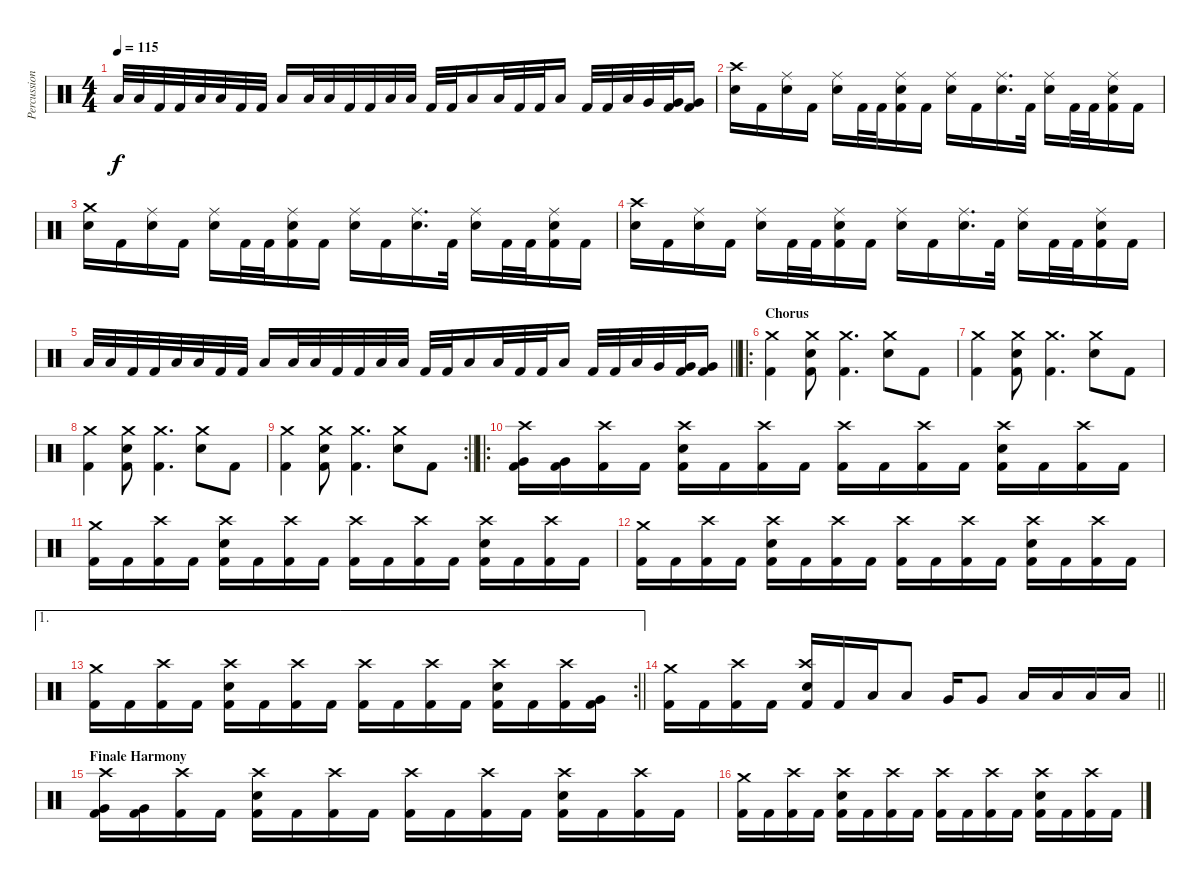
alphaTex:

\track ("Percussion" "Percussion") {instrument percussion}
\staff {score}
\articulation defaults
\ts (4 4)
\tempo 115
\clef neutral
\ks c "Low Tom (hit)".32{dy f} "Low Tom (hit)".32 "Kick (hit) 2".32 "Kick (hit) 2".32 "Low Tom (hit)".32 "Low Tom (hit)".32 "Kick (hit) 2".32 "Kick (hit) 2".32 "Low Tom (hit)".16 "Low Tom (hit)".32 "Low Tom (hit)".32 "Kick (hit) 2".32 "Kick (hit) 2".32 "Low Tom (hit)".32 "Low Tom (hit)".32 "Kick (hit) 2".32 "Kick (hit) 2".32 "Low Tom (hit)".16 "Low Tom (hit)".32 "Kick (hit) 2".32 "Kick (hit) 2".32 "Low Tom (hit)".16 "Kick (hit) 2".32 "Kick (hit) 2".32 "Low Tom (hit)".32 "Very Low Tom (hit)".32
("Very Low Tom (hit)" "Kick (hit) 2").32 ("Very Low Tom (hit)" "Kick (hit) 2").16 |
("Crash high (hit)" "Snare (hit) 2").16 "Kick (hit) 2".16 ("Ride (middle)" "Snare (hit) 2").16 "Kick (hit) 2".16 ("Ride (middle)" "Snare (hit) 2").16 "Kick (hit) 2".32 "Kick (hit) 2".32 ("Ride (middle)" "Snare (hit) 2" "Kick (hit) 2").16 "Kick (hit) 2".16 ("Ride (middle)" "Snare (hit) 2").16 "Kick (hit) 2".16 ("Ride (middle)" "Snare (hit) 2").16{d} "Kick (hit) 2".32 ("Ride (middle)" "Snare (hit) 2").16 "Kick (hit) 2".32 "Kick (hit) 2".32 ("Ride (middle)" "Snare (hit) 2" "Kick (hit) 2").16 "Kick (hit) 2".16 |
("Crash medium (hit)" "Snare (hit) 2").16 "Kick (hit) 2".16 ("Ride (middle)" "Snare (hit) 2").16 "Kick (hit) 2".16 ("Ride (middle)" "Snare (hit) 2").16 "Kick (hit) 2".32 "Kick (hit) 2".32 ("Ride (middle)" "Snare (hit) 2" "Kick (hit) 2").16 "Kick (hit) 2".16 ("Ride (middle)" "Snare (hit) 2").16 "Kick (hit) 2".16 ("Ride (middle)" "Snare (hit) 2").16{d} "Kick (hit) 2".32 ("Ride (middle)" "Snare (hit) 2").16 "Kick (hit) 2".32 "Kick (hit) 2".32 ("Ride (middle)" "Snare (hit) 2" "Kick (hit) 2").16 "Kick (hit) 2".16 |
("Crash high (hit)" "Snare (hit) 2").16 "Kick (hit) 2".16 ("Ride (middle)" "Snare (hit) 2").16 "Kick (hit) 2".16 ("Ride (middle)" "Snare (hit) 2").16 "Kick (hit) 2".32 "Kick (hit) 2".32 ("Ride (middle)" "Snare (hit) 2" "Kick (hit) 2").16 "Kick (hit) 2".16 ("Ride (middle)" "Snare (hit) 2").16 "Kick (hit) 2".16 ("Ride (middle)" "Snare (hit) 2").16{d} "Kick (hit) 2".32 ("Ride (middle)" "Snare (hit) 2").16 "Kick (hit) 2".32 "Kick (hit) 2".32 ("Ride (middle)" "Snare (hit) 2" "Kick (hit) 2").16 "Kick (hit) 2".16 |
\barLineRight lightlight "Low Tom (hit)".32 "Low Tom (hit)".32 "Kick (hit) 2".32 "Kick (hit) 2".32 "Low Tom (hit)".32 "Low Tom (hit)".32 "Kick (hit) 2".32 "Kick (hit) 2".32 "Low Tom (hit)".16 "Low Tom (hit)".32 "Low Tom (hit)".32 "Kick (hit) 2".32 "Kick (hit) 2".32 "Low Tom (hit)".32 "Low Tom (hit)".32 "Kick (hit) 2".32 "Kick (hit) 2".32 "Low Tom (hit)".16 "Low Tom (hit)".32 "Kick (hit) 2".32 "Kick (hit) 2".32 "Low Tom (hit)".16 "Kick (hit) 2".32 "Kick (hit) 2".32 "Low Tom (hit)".32 "Very Low Tom (hit)".32
("Very Low Tom (hit)" "Kick (hit) 2").32 ("Very Low Tom (hit)" "Kick (hit) 2").16 |
\ro
\section ("" "Chorus")
("Crash medium (hit)" "Kick (hit) 2").4 ("Crash medium (hit)" "Snare (hit) 2" "Kick (hit) 2").8 ("Crash medium (hit)" "Kick (hit) 2").4{d} ("Crash medium (hit)" "Snare (hit) 2").8 "Kick (hit) 2".8 |
("Crash medium (hit)" "Kick (hit) 2").4 ("Crash medium (hit)" "Snare (hit) 2" "Kick (hit) 2").8 ("Crash medium (hit)" "Kick (hit) 2").4{d} ("Crash medium (hit)" "Snare (hit) 2").8 "Kick (hit) 2".8 |
("Crash medium (hit)" "Kick (hit) 2").4 ("Crash medium (hit)" "Snare (hit) 2" "Kick (hit) 2").8 ("Crash medium (hit)" "Kick (hit) 2").4{d} ("Crash medium (hit)" "Snare (hit) 2").8 "Kick (hit) 2".8 |
\rc 2
\barLineRight lightlight
("Crash medium (hit)" "Kick (hit) 2").4 ("Crash medium (hit)" "Snare (hit) 2" "Kick (hit) 2").8 ("Crash medium (hit)" "Kick (hit) 2").4{d} ("Crash medium (hit)" "Snare (hit) 2").8 "Kick (hit) 2".8 |
\ro
("Crash high (hit)" "Very Low Tom (hit)" "Kick (hit) 2").16 ("Very Low Tom (hit)" "Kick (hit) 2").16 ("Crash high (hit)" "Kick (hit) 2").16 "Kick (hit) 2".16 ("Crash high (hit)" "Snare (hit) 2" "Kick (hit) 2").16 "Kick (hit) 2".16 ("Crash high (hit)" "Kick (hit) 2").16 "Kick (hit) 2".16 ("Crash high (hit)" "Kick (hit) 2").16 "Kick (hit) 2".16 ("Crash high (hit)" "Kick (hit) 2").16 "Kick (hit) 2".16 ("Crash high (hit)" "Snare (hit) 2" "Kick (hit) 2").16 "Kick (hit) 2".16 ("Crash high (hit)" "Kick (hit) 2").16 "Kick (hit) 2".16 |
("Crash medium (hit)" "Kick (hit) 2").16 "Kick (hit) 2".16 ("Crash high (hit)" "Kick (hit) 2").16 "Kick (hit) 2".16 ("Crash high (hit)" "Snare (hit) 2" "Kick (hit) 2").16 "Kick (hit) 2".16 ("Crash high (hit)" "Kick (hit) 2").16 "Kick (hit) 2".16 ("Crash high (hit)" "Kick (hit) 2").16 "Kick (hit) 2".16 ("Crash high (hit)" "Kick (hit) 2").16 "Kick (hit) 2".16 ("Crash high (hit)" "Snare (hit) 2" "Kick (hit) 2").16 "Kick (hit) 2".16 ("Crash high (hit)" "Kick (hit) 2").16 "Kick (hit) 2".16 |
("Crash medium (hit)" "Kick (hit) 2").16 "Kick (hit) 2".16 ("Crash high (hit)" "Kick (hit) 2").16 "Kick (hit) 2".16 ("Crash high (hit)" "Snare (hit) 2" "Kick (hit) 2").16 "Kick (hit) 2".16 ("Crash high (hit)" "Kick (hit) 2").16 "Kick (hit) 2".16 ("Crash high (hit)" "Kick (hit) 2").16 "Kick (hit) 2".16 ("Crash high (hit)" "Kick (hit) 2").16 "Kick (hit) 2".16 ("Crash high (hit)" "Snare (hit) 2" "Kick (hit) 2").16 "Kick (hit) 2".16 ("Crash high (hit)" "Kick (hit) 2").16 "Kick (hit) 2".16 |
\ae 1
\rc 2
\barLineRight lightlight
("Crash medium (hit)" "Kick (hit) 2").16 "Kick (hit) 2".16 ("Crash high (hit)" "Kick (hit) 2").16 "Kick (hit) 2".16 ("Crash high (hit)" "Snare (hit) 2" "Kick (hit) 2").16 "Kick (hit) 2".16 ("Crash high (hit)" "Kick (hit) 2").16 "Kick (hit) 2".16 ("Crash high (hit)" "Kick (hit) 2").16 "Kick (hit) 2".16 ("Crash high (hit)" "Kick (hit) 2").16 "Kick (hit) 2".16 ("Crash high (hit)" "Snare (hit) 2" "Kick (hit) 2").16 "Kick (hit) 2".16 ("Crash high (hit)" "Kick (hit) 2").16 ("Very Low Tom (hit)" "Kick (hit) 2").16 |
\barLineRight lightlight
("Crash medium (hit)" "Kick (hit) 2").16 "Kick (hit) 2".16 ("Crash high (hit)" "Kick (hit) 2").16 "Kick (hit) 2".16 ("Crash high (hit)" "Snare (hit) 2" "Kick (hit) 2").16 "Kick (hit) 2".16 "Low Tom (hit)".16 "Low Tom (hit)".8 "Very Low Tom (hit)".16 "Very Low Tom (hit)".8 "Low Floor Tom (hit)".16 "Low Floor Tom (hit)".16 "Low Floor Tom (hit)".16 "Low Floor Tom (hit)".16 |
\section ("" "Finale Harmony")
("Crash high (hit)" "Very Low Tom (hit)" "Kick (hit) 2").16 ("Very Low Tom (hit)" "Kick (hit) 2").16 ("Crash high (hit)" "Kick (hit) 2").16 "Kick (hit) 2".16 ("Crash high (hit)" "Snare (hit) 2" "Kick (hit) 2").16 "Kick (hit) 2".16 ("Crash high (hit)" "Kick (hit) 2").16 "Kick (hit) 2".16 ("Crash high (hit)" "Kick (hit) 2").16 "Kick (hit) 2".16 ("Crash high (hit)" "Kick (hit) 2").16 "Kick (hit) 2".16 ("Crash high (hit)" "Snare (hit) 2" "Kick (hit) 2").16 "Kick (hit) 2".16 ("Crash high (hit)" "Kick (hit) 2").16 "Kick (hit) 2".16 |
("Crash medium (hit)" "Kick (hit) 2").16 "Kick (hit) 2".16 ("Crash high (hit)" "Kick (hit) 2").16 "Kick (hit) 2".16 ("Crash high (hit)" "Snare (hit) 2" "Kick (hit) 2").16 "Kick (hit) 2".16 ("Crash high (hit)" "Kick (hit) 2").16 "Kick (hit) 2".16 ("Crash high (hit)" "Kick (hit) 2").16 "Kick (hit) 2".16 ("Crash high (hit)" "Kick (hit) 2").16 "Kick (hit) 2".16 ("Crash high (hit)" "Snare (hit) 2" "Kick (hit) 2").16 "Kick (hit) 2".16 ("Crash high (hit)" "Kick (hit) 2").16 "Kick (hit) 2".16
